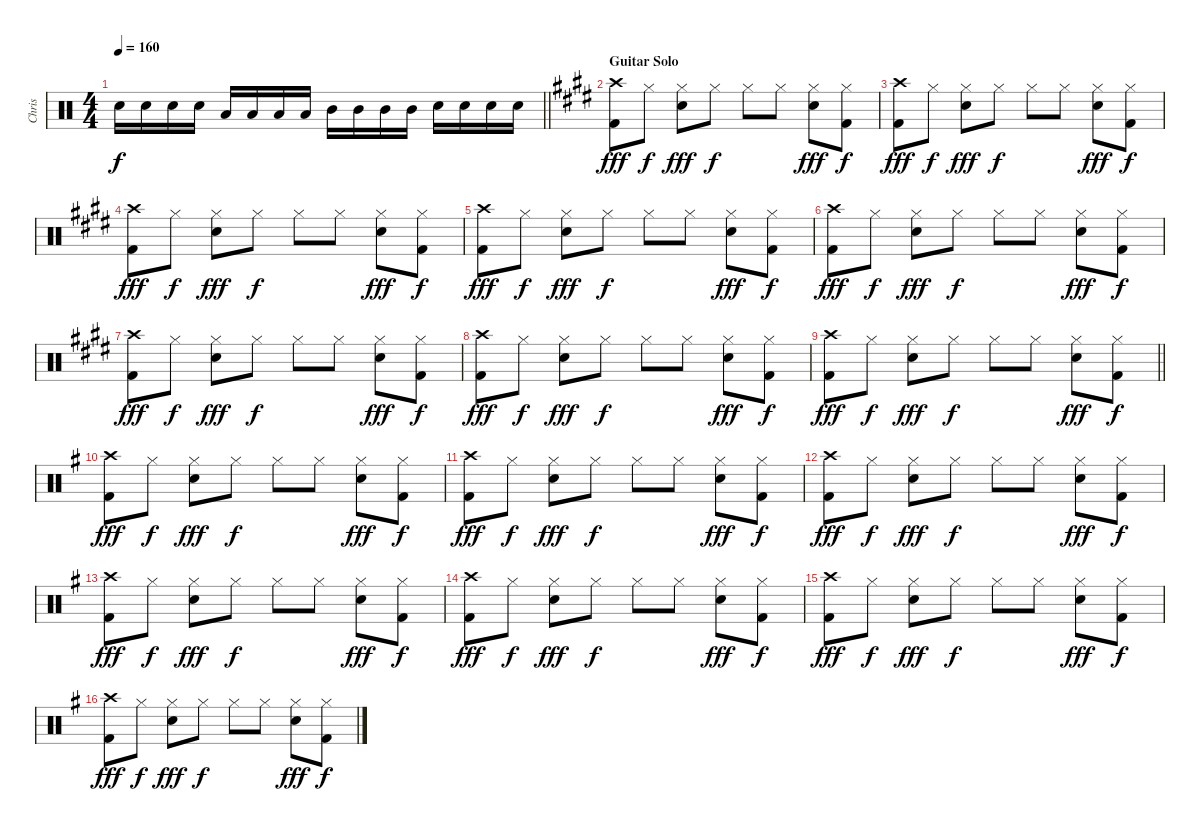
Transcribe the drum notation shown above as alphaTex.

\track ("Chris" "Chris") {instrument percussion}
\staff {score}
\articulation defaults
\ts (4 4)
\tempo 160
\clef neutral
\barLineRight lightlight
\ks c "Snare (hit) 2".16{dy f} "Snare (hit) 2".16 "Snare (hit) 2".16 "Snare (hit) 2".16 "Low Tom (hit)".16 "Low Tom (hit)".16 "Low Tom (hit)".16 "Low Tom (hit)".16 "Mid Tom (hit)".16 "Mid Tom (hit)".16 "Mid Tom (hit)".16 "Mid Tom (hit)".16 "Snare (hit) 2".16 "Snare (hit) 2".16 "Snare (hit) 2".16 "Snare (hit) 2".16
|
\section ("" "Guitar Solo")
\ks c#minor
("Crash high (hit)" "Kick (hit) 2").8{dy fff} "Hi-Hat (closed)".8{dy f} ("Hi-Hat (closed)" "Snare (hit) 2").8{dy fff} "Hi-Hat (closed)".8{dy f} "Hi-Hat (closed)".8 "Hi-Hat (closed)".8 ("Hi-Hat (closed)" "Snare (hit) 2").8{dy fff} ("Hi-Hat (closed)" "Kick (hit) 2").8{dy f} |
("Crash high (hit)" "Kick (hit) 2").8{dy fff} "Hi-Hat (closed)".8{dy f} ("Hi-Hat (closed)" "Snare (hit) 2").8{dy fff} "Hi-Hat (closed)".8{dy f} "Hi-Hat (closed)".8 "Hi-Hat (closed)".8 ("Hi-Hat (closed)" "Snare (hit) 2").8{dy fff} ("Hi-Hat (closed)" "Kick (hit) 2").8{dy f} |
("Crash high (hit)" "Kick (hit) 2").8{dy fff} "Hi-Hat (closed)".8{dy f} ("Hi-Hat (closed)" "Snare (hit) 2").8{dy fff} "Hi-Hat (closed)".8{dy f} "Hi-Hat (closed)".8 "Hi-Hat (closed)".8 ("Hi-Hat (closed)" "Snare (hit) 2").8{dy fff} ("Hi-Hat (closed)" "Kick (hit) 2").8{dy f} |
("Crash high (hit)" "Kick (hit) 2").8{dy fff} "Hi-Hat (closed)".8{dy f} ("Hi-Hat (closed)" "Snare (hit) 2").8{dy fff} "Hi-Hat (closed)".8{dy f} "Hi-Hat (closed)".8 "Hi-Hat (closed)".8 ("Hi-Hat (closed)" "Snare (hit) 2").8{dy fff} ("Hi-Hat (closed)" "Kick (hit) 2").8{dy f} |
("Crash high (hit)" "Kick (hit) 2").8{dy fff} "Hi-Hat (closed)".8{dy f} ("Hi-Hat (closed)" "Snare (hit) 2").8{dy fff} "Hi-Hat (closed)".8{dy f} "Hi-Hat (closed)".8 "Hi-Hat (closed)".8 ("Hi-Hat (closed)" "Snare (hit) 2").8{dy fff} ("Hi-Hat (closed)" "Kick (hit) 2").8{dy f} |
("Crash high (hit)" "Kick (hit) 2").8{dy fff} "Hi-Hat (closed)".8{dy f} ("Hi-Hat (closed)" "Snare (hit) 2").8{dy fff} "Hi-Hat (closed)".8{dy f} "Hi-Hat (closed)".8 "Hi-Hat (closed)".8 ("Hi-Hat (closed)" "Snare (hit) 2").8{dy fff} ("Hi-Hat (closed)" "Kick (hit) 2").8{dy f} |
("Crash high (hit)" "Kick (hit) 2").8{dy fff} "Hi-Hat (closed)".8{dy f} ("Hi-Hat (closed)" "Snare (hit) 2").8{dy fff} "Hi-Hat (closed)".8{dy f} "Hi-Hat (closed)".8 "Hi-Hat (closed)".8 ("Hi-Hat (closed)" "Snare (hit) 2").8{dy fff} ("Hi-Hat (closed)" "Kick (hit) 2").8{dy f} |
\barLineRight lightlight
("Crash high (hit)" "Kick (hit) 2").8{dy fff} "Hi-Hat (closed)".8{dy f} ("Hi-Hat (closed)" "Snare (hit) 2").8{dy fff} "Hi-Hat (closed)".8{dy f} "Hi-Hat (closed)".8 "Hi-Hat (closed)".8 ("Hi-Hat (closed)" "Snare (hit) 2").8{dy fff} ("Hi-Hat (closed)" "Kick (hit) 2").8{dy f} |
\ks eminor
("Crash high (hit)" "Kick (hit) 2").8{dy fff} "Hi-Hat (closed)".8{dy f} ("Hi-Hat (closed)" "Snare (hit) 2").8{dy fff} "Hi-Hat (closed)".8{dy f} "Hi-Hat (closed)".8 "Hi-Hat (closed)".8 ("Hi-Hat (closed)" "Snare (hit) 2").8{dy fff} ("Hi-Hat (closed)" "Kick (hit) 2").8{dy f} |
("Crash high (hit)" "Kick (hit) 2").8{dy fff} "Hi-Hat (closed)".8{dy f} ("Hi-Hat (closed)" "Snare (hit) 2").8{dy fff} "Hi-Hat (closed)".8{dy f} "Hi-Hat (closed)".8 "Hi-Hat (closed)".8 ("Hi-Hat (closed)" "Snare (hit) 2").8{dy fff} ("Hi-Hat (closed)" "Kick (hit) 2").8{dy f} |
("Crash high (hit)" "Kick (hit) 2").8{dy fff} "Hi-Hat (closed)".8{dy f} ("Hi-Hat (closed)" "Snare (hit) 2").8{dy fff} "Hi-Hat (closed)".8{dy f} "Hi-Hat (closed)".8 "Hi-Hat (closed)".8 ("Hi-Hat (closed)" "Snare (hit) 2").8{dy fff} ("Hi-Hat (closed)" "Kick (hit) 2").8{dy f} |
("Crash high (hit)" "Kick (hit) 2").8{dy fff} "Hi-Hat (closed)".8{dy f} ("Hi-Hat (closed)" "Snare (hit) 2").8{dy fff} "Hi-Hat (closed)".8{dy f} "Hi-Hat (closed)".8 "Hi-Hat (closed)".8 ("Hi-Hat (closed)" "Snare (hit) 2").8{dy fff} ("Hi-Hat (closed)" "Kick (hit) 2").8{dy f} |
("Crash high (hit)" "Kick (hit) 2").8{dy fff} "Hi-Hat (closed)".8{dy f} ("Hi-Hat (closed)" "Snare (hit) 2").8{dy fff} "Hi-Hat (closed)".8{dy f} "Hi-Hat (closed)".8 "Hi-Hat (closed)".8 ("Hi-Hat (closed)" "Snare (hit) 2").8{dy fff} ("Hi-Hat (closed)" "Kick (hit) 2").8{dy f} |
("Crash high (hit)" "Kick (hit) 2").8{dy fff} "Hi-Hat (closed)".8{dy f} ("Hi-Hat (closed)" "Snare (hit) 2").8{dy fff} "Hi-Hat (closed)".8{dy f} "Hi-Hat (closed)".8 "Hi-Hat (closed)".8 ("Hi-Hat (closed)" "Snare (hit) 2").8{dy fff} ("Hi-Hat (closed)" "Kick (hit) 2").8{dy f} |
("Crash high (hit)" "Kick (hit) 2").8{dy fff} "Hi-Hat (closed)".8{dy f} ("Hi-Hat (closed)" "Snare (hit) 2").8{dy fff} "Hi-Hat (closed)".8{dy f} "Hi-Hat (closed)".8 "Hi-Hat (closed)".8 ("Hi-Hat (closed)" "Snare (hit) 2").8{dy fff} ("Hi-Hat (closed)" "Kick (hit) 2").8{dy f}
